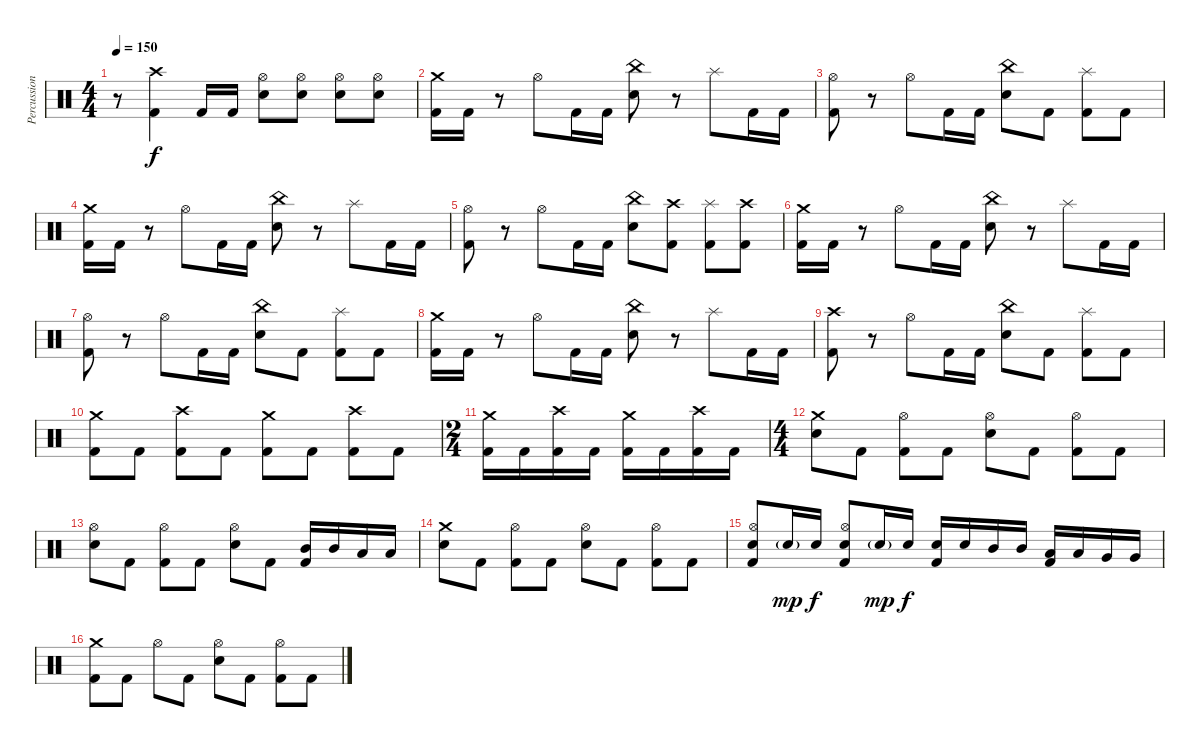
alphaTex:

\track ("Percussion" "Percussion") {instrument percussion}
\staff {score}
\articulation defaults
\ts (4 4)
\tempo 150
\clef neutral
\ks c
r.8{dy f} ("Crash high (hit)" "Kick (hit) 2").4 "Kick (hit) 2".16 "Kick (hit) 2".16 ("Hi-Hat (open)" "Electric Snare (hit)").8 ("Hi-Hat (open)" "Electric Snare (hit)").8 ("Hi-Hat (open)" "Electric Snare (hit)").8 ("Hi-Hat (open)" "Electric Snare (hit)").8 |
("Crash medium (hit)" "Kick (hit) 2").16 "Kick (hit) 2".16 r.8 "Hi-Hat (open)".8 "Kick (hit) 2".16 "Kick (hit) 2".16 ("China (hit)" "Electric Snare (hit)").8 r.8 "Splash (hit)".8 "Kick (hit) 2".16 "Kick (hit) 2".16 |
("Hi-Hat (open)" "Kick (hit) 2").8 r.8 "Hi-Hat (open)".8 "Kick (hit) 2".16 "Kick (hit) 2".16 ("China (hit)" "Electric Snare (hit)").8 "Kick (hit) 2".8 ("Splash (hit)" "Kick (hit) 2").8 "Kick (hit) 2".8 |
("Crash medium (hit)" "Kick (hit) 2").16 "Kick (hit) 2".16 r.8 "Hi-Hat (open)".8 "Kick (hit) 2".16 "Kick (hit) 2".16 ("China (hit)" "Electric Snare (hit)").8 r.8 "Splash (hit)".8 "Kick (hit) 2".16 "Kick (hit) 2".16 |
("Hi-Hat (open)" "Kick (hit) 2").8 r.8 "Hi-Hat (open)".8 "Kick (hit) 2".16 "Kick (hit) 2".16 ("China (hit)" "Electric Snare (hit)").8 ("Crash high (hit)" "Kick (hit) 2").8 ("Splash (hit)" "Kick (hit) 2").8 ("Crash high (hit)" "Kick (hit) 2").8 |
("Crash medium (hit)" "Kick (hit) 2").16 "Kick (hit) 2".16 r.8 "Hi-Hat (open)".8 "Kick (hit) 2".16 "Kick (hit) 2".16 ("China (hit)" "Electric Snare (hit)").8 r.8 "Splash (hit)".8 "Kick (hit) 2".16 "Kick (hit) 2".16 |
("Hi-Hat (open)" "Kick (hit) 2").8 r.8 "Hi-Hat (open)".8 "Kick (hit) 2".16 "Kick (hit) 2".16 ("China (hit)" "Electric Snare (hit)").8 "Kick (hit) 2".8 ("Splash (hit)" "Kick (hit) 2").8 "Kick (hit) 2".8 |
("Crash medium (hit)" "Kick (hit) 2").16 "Kick (hit) 2".16 r.8 "Hi-Hat (open)".8 "Kick (hit) 2".16 "Kick (hit) 2".16 ("China (hit)" "Electric Snare (hit)").8 r.8 "Splash (hit)".8 "Kick (hit) 2".16 "Kick (hit) 2".16 |
("Crash high (hit)" "Kick (hit) 2").8 r.8 "Hi-Hat (open)".8 "Kick (hit) 2".16 "Kick (hit) 2".16 ("China (hit)" "Electric Snare (hit)").8 "Kick (hit) 2".8 ("Splash (hit)" "Kick (hit) 2").8 "Kick (hit) 2".8 |
("Crash medium (hit)" "Kick (hit) 2").8 "Kick (hit) 2".8 ("Crash high (hit)" "Kick (hit) 2").8 "Kick (hit) 2".8 ("Crash medium (hit)" "Kick (hit) 2").8 "Kick (hit) 2".8 ("Crash high (hit)" "Kick (hit) 2").8 "Kick (hit) 2".8 |
\ts (2 4)
("Crash medium (hit)" "Kick (hit) 2").16 "Kick (hit) 2".16 ("Crash high (hit)" "Kick (hit) 2").16 "Kick (hit) 2".16 ("Crash medium (hit)" "Kick (hit) 2").16 "Kick (hit) 2".16 ("Crash high (hit)" "Kick (hit) 2").16 "Kick (hit) 2".16 |
\ts (4 4)
("Crash medium (hit)" "Electric Snare (hit)").8 "Kick (hit) 2".8 ("Hi-Hat (open)" "Kick (hit) 2").8 "Kick (hit) 2".8 ("Hi-Hat (open)" "Electric Snare (hit)").8 "Kick (hit) 2".8 ("Hi-Hat (open)" "Kick (hit) 2").8 "Kick (hit) 2".8 |
("Hi-Hat (open)" "Electric Snare (hit)").8 "Kick (hit) 2".8 ("Hi-Hat (open)" "Kick (hit) 2").8 "Kick (hit) 2".8 ("Hi-Hat (open)" "Electric Snare (hit)").8 "Kick (hit) 2".8 ("Mid Tom (hit)" "Kick (hit) 2").16 "Mid Tom (hit)".16 "Low Tom (hit)".16 "Low Tom (hit)".16 |
("Crash medium (hit)" "Electric Snare (hit)").8 "Kick (hit) 2".8 ("Hi-Hat (open)" "Kick (hit) 2").8 "Kick (hit) 2".8 ("Hi-Hat (open)" "Electric Snare (hit)").8 "Kick (hit) 2".8 ("Hi-Hat (open)" "Kick (hit) 2").8 "Kick (hit) 2".8 |
("Hi-Hat (open)" "Electric Snare (hit)" "Kick (hit) 2").8 "Electric Snare (hit)"{g}.16{dy mp} "Electric Snare (hit)".16{dy f} ("Hi-Hat (open)" "Electric Snare (hit)" "Kick (hit) 2").8 "Electric Snare (hit)"{g}.16{dy mp} "Electric Snare (hit)".16{dy f} ("Electric Snare (hit)" "Kick (hit) 2").16 "Electric Snare (hit)".16 "Mid Tom (hit)".16 "Mid Tom (hit)".16 ("Low Tom (hit)" "Kick (hit) 2").16 "Low Tom (hit)".16 "Very Low Tom (hit)".16 "Very Low Tom (hit)".16 |
("Crash medium (hit)" "Kick (hit) 2").8 "Kick (hit) 2".8 "Hi-Hat (open)".8 "Kick (hit) 2".8 ("Hi-Hat (open)" "Electric Snare (hit)").8 "Kick (hit) 2".8 ("Hi-Hat (open)" "Kick (hit) 2").8 "Kick (hit) 2".8
